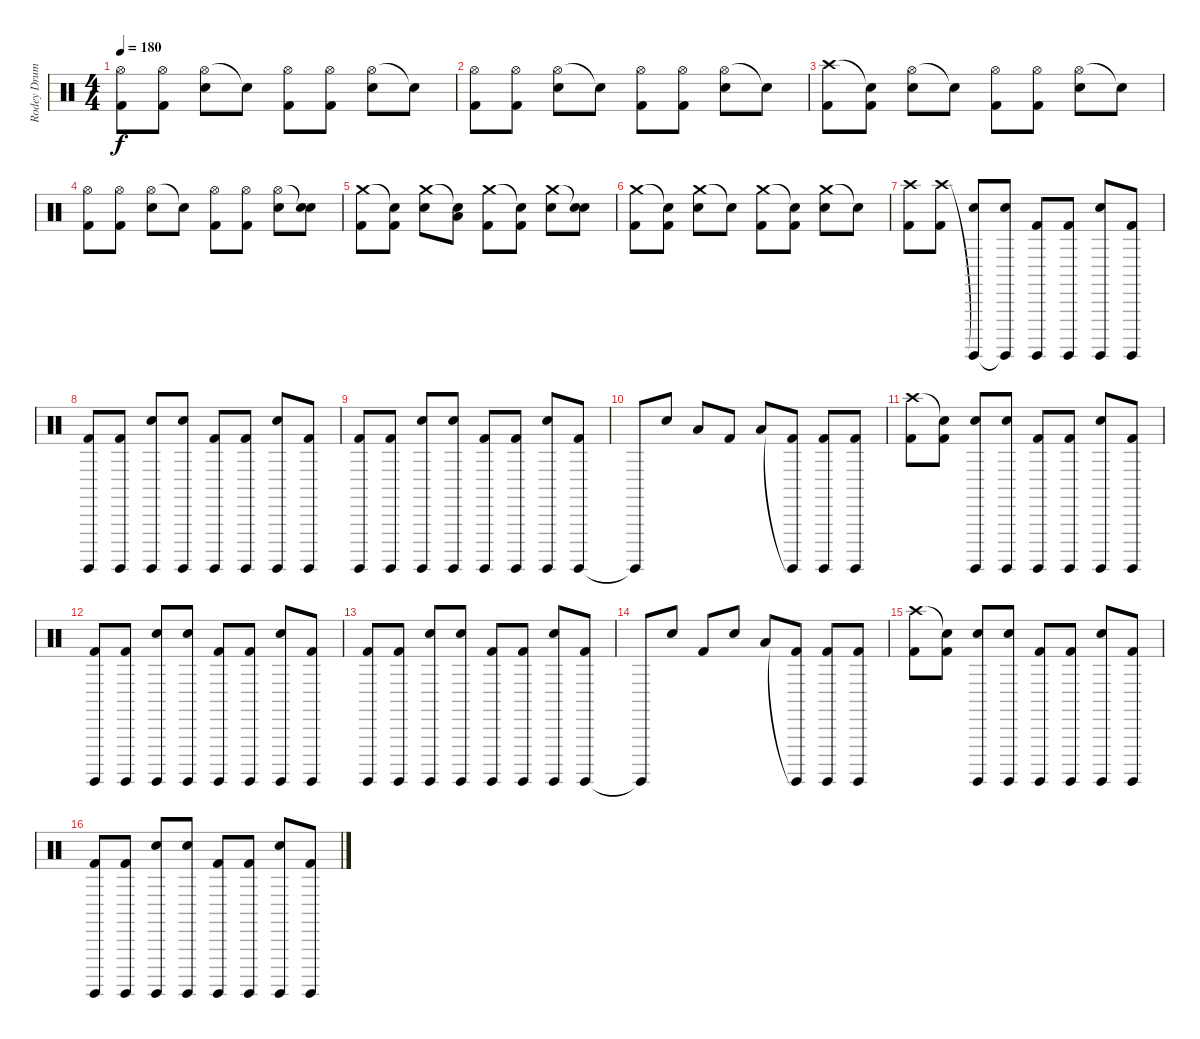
\track ("Rodey Drums" "Rodey Drum") {instrument percussion}
\staff {score}
\articulation defaults
\ts (4 4)
\tempo 180
\clef neutral
\ks c
("Hi-Hat (open)" "Kick (hit) 2").8{dy f} ("Hi-Hat (open)" "Kick (hit) 2").8 ("Hi-Hat (open)" "Electric Snare (hit)").8 "Snare (hit)"{t}.8 ("Hi-Hat (open)" "Kick (hit) 2").8 ("Hi-Hat (open)" "Kick (hit) 2").8 ("Hi-Hat (open)" "Electric Snare (hit)").8 "Snare (hit)"{t}.8 |
("Hi-Hat (open)" "Kick (hit) 2").8 ("Hi-Hat (open)" "Kick (hit) 2").8 ("Hi-Hat (open)" "Electric Snare (hit)").8 "Snare (hit)"{t}.8 ("Hi-Hat (open)" "Kick (hit) 2").8 ("Hi-Hat (open)" "Kick (hit) 2").8 ("Hi-Hat (open)" "Electric Snare (hit)").8 "Snare (hit)"{t}.8 |
("Crash high (hit)" "Kick (hit) 2").8 ("Snare (hit)"{t} "Kick (hit) 2").8 ("Hi-Hat (open)" "Electric Snare (hit)").8 "Snare (hit)"{t}.8 ("Hi-Hat (open)" "Kick (hit) 2").8 ("Hi-Hat (open)" "Kick (hit) 2").8 ("Hi-Hat (open)" "Electric Snare (hit)").8 "Snare (hit)"{t}.8 |
("Hi-Hat (open)" "Kick (hit) 2").8 ("Hi-Hat (open)" "Kick (hit) 2").8 ("Hi-Hat (open)" "Electric Snare (hit)").8 "Snare (hit)"{t}.8 ("Hi-Hat (open)" "Kick (hit) 2").8 ("Hi-Hat (open)" "Kick (hit) 2").8 ("Hi-Hat (open)" "Electric Snare (hit)").8 ("Snare (hit)"{t} "Electric Snare (hit)").8 |
("Crash medium (hit)" "Kick (hit) 2").8 ("Snare (hit)"{t} "Kick (hit) 2").8 ("Crash medium (hit)" "Electric Snare (hit)").8 ("Snare (hit)"{t} "Low Floor Tom (hit)").8 ("Crash medium (hit)" "Kick (hit) 2").8 ("Snare (hit)"{t} "Kick (hit) 2").8 ("Crash medium (hit)" "Electric Snare (hit)").8 ("Snare (hit)"{t} "Electric Snare (hit)").8 |
("Crash medium (hit)" "Kick (hit) 2").8 ("Snare (hit)"{t} "Kick (hit) 2").8 ("Crash medium (hit)" "Electric Snare (hit)").8 "Snare (hit)"{t}.8 ("Crash medium (hit)" "Kick (hit) 2").8 ("Snare (hit)"{t} "Kick (hit) 2").8 ("Crash medium (hit)" "Electric Snare (hit)").8 "Snare (hit)"{t}.8 |
("Crash high (hit)" "Kick (hit) 2").8 ("Crash high (hit)" "Kick (hit) 2").8 ("Surdo (hit)"{t} "Electric Snare (hit)").8 ("Surdo (hit)"{t} "Electric Snare (hit)").8 ("Surdo (hit)" "Kick (hit) 2").8 ("Surdo (hit)" "Kick (hit) 2").8 ("Surdo (hit)" "Electric Snare (hit)").8 ("Surdo (hit)" "Kick (hit) 2").8 |
("Surdo (hit)" "Kick (hit) 2").8 ("Surdo (hit)" "Kick (hit) 2").8 ("Surdo (hit)" "Electric Snare (hit)").8 ("Surdo (hit)" "Electric Snare (hit)").8 ("Surdo (hit)" "Kick (hit) 2").8 ("Surdo (hit)" "Kick (hit) 2").8 ("Surdo (hit)" "Electric Snare (hit)").8 ("Surdo (hit)" "Kick (hit) 2").8 |
("Surdo (hit)" "Kick (hit) 2").8 ("Surdo (hit)" "Kick (hit) 2").8 ("Surdo (hit)" "Electric Snare (hit)").8 ("Surdo (hit)" "Electric Snare (hit)").8 ("Surdo (hit)" "Kick (hit) 2").8 ("Surdo (hit)" "Kick (hit) 2").8 ("Surdo (hit)" "Electric Snare (hit)").8 ("Surdo (hit)" "Kick (hit) 2").8 |
"Surdo (hit)"{t}.8 "Electric Snare (hit)".8 "Low Tom (hit)".8 "Kick (hit) 2".8 "Low Tom (hit)".8 ("Surdo (hit)"{t} "Kick (hit) 2").8 ("Surdo (hit)" "Kick (hit) 2").8 ("Surdo (hit)" "Kick (hit) 2").8 |
("Crash high (hit)" "Kick (hit) 2").8 ("Snare (hit)"{t} "Kick (hit) 2").8 ("Surdo (hit)" "Electric Snare (hit)").8 ("Surdo (hit)" "Electric Snare (hit)").8 ("Surdo (hit)" "Kick (hit) 2").8 ("Surdo (hit)" "Kick (hit) 2").8 ("Surdo (hit)" "Electric Snare (hit)").8 ("Surdo (hit)" "Kick (hit) 2").8 |
("Surdo (hit)" "Kick (hit) 2").8 ("Surdo (hit)" "Kick (hit) 2").8 ("Surdo (hit)" "Electric Snare (hit)").8 ("Surdo (hit)" "Electric Snare (hit)").8 ("Surdo (hit)" "Kick (hit) 2").8 ("Surdo (hit)" "Kick (hit) 2").8 ("Surdo (hit)" "Electric Snare (hit)").8 ("Surdo (hit)" "Kick (hit) 2").8 |
("Surdo (hit)" "Kick (hit) 2").8 ("Surdo (hit)" "Kick (hit) 2").8 ("Surdo (hit)" "Electric Snare (hit)").8 ("Surdo (hit)" "Electric Snare (hit)").8 ("Surdo (hit)" "Kick (hit) 2").8 ("Surdo (hit)" "Kick (hit) 2").8 ("Surdo (hit)" "Electric Snare (hit)").8 ("Surdo (hit)" "Kick (hit) 2").8 |
"Surdo (hit)"{t}.8 "Electric Snare (hit)".8 "Kick (hit) 2".8 "Electric Snare (hit)".8 "Low Tom (hit)".8 ("Surdo (hit)"{t} "Kick (hit) 2").8 ("Surdo (hit)" "Kick (hit) 2").8 ("Surdo (hit)" "Kick (hit) 2").8 |
("Crash high (hit)" "Kick (hit) 2").8 ("Snare (hit)"{t} "Kick (hit) 2").8 ("Surdo (hit)" "Electric Snare (hit)").8 ("Surdo (hit)" "Electric Snare (hit)").8 ("Surdo (hit)" "Kick (hit) 2").8 ("Surdo (hit)" "Kick (hit) 2").8 ("Surdo (hit)" "Electric Snare (hit)").8 ("Surdo (hit)" "Kick (hit) 2").8 |
("Surdo (hit)" "Kick (hit) 2").8 ("Surdo (hit)" "Kick (hit) 2").8 ("Surdo (hit)" "Electric Snare (hit)").8 ("Surdo (hit)" "Electric Snare (hit)").8 ("Surdo (hit)" "Kick (hit) 2").8 ("Surdo (hit)" "Kick (hit) 2").8 ("Surdo (hit)" "Electric Snare (hit)").8 ("Surdo (hit)" "Kick (hit) 2").8
